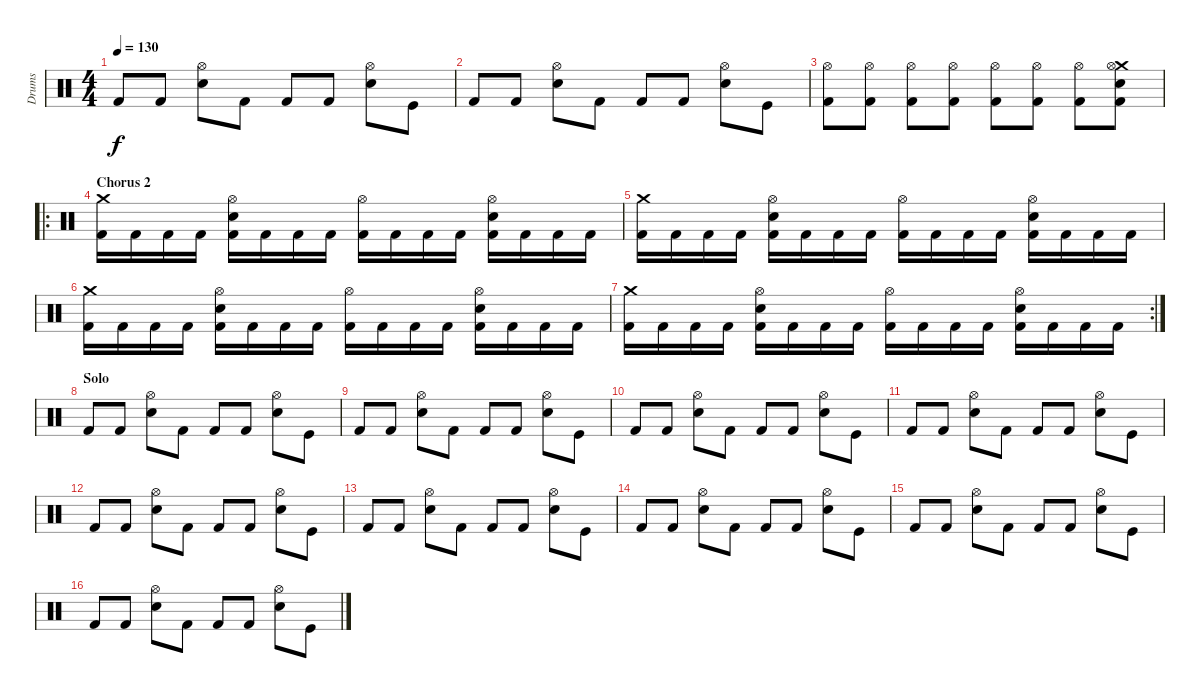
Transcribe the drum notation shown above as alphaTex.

\track ("Drums" "Drums") {instrument percussion}
\staff {score}
\articulation defaults
\ts (4 4)
\tempo 130
\clef neutral
\ks c "Kick (hit) 2".8{dy f} "Kick (hit) 2".8
("Electric Snare (hit)" "Hi-Hat (open)").8 "Kick (hit) 2".8 "Kick (hit) 2".8 "Kick (hit) 2".8 ("Electric Snare (hit)" "Hi-Hat (open)").8 "Kick (hit)".8 |
"Kick (hit) 2".8 "Kick (hit) 2".8 ("Electric Snare (hit)" "Hi-Hat (open)").8 "Kick (hit) 2".8 "Kick (hit) 2".8 "Kick (hit) 2".8 ("Electric Snare (hit)" "Hi-Hat (open)").8 "Kick (hit)".8{volume 0} |
("Kick (hit) 2" "Hi-Hat (open)").8{volume 16} ("Kick (hit) 2" "Hi-Hat (open)").8 ("Kick (hit) 2" "Hi-Hat (open)").8 ("Kick (hit) 2" "Hi-Hat (open)").8 ("Kick (hit) 2" "Hi-Hat (open)").8 ("Kick (hit) 2" "Hi-Hat (open)").8 ("Kick (hit) 2" "Hi-Hat (open)").8 ("Kick (hit) 2" "Crash medium (hit)" "Hi-Hat (open)" "Electric Snare (hit)").8 |
\ro
\section ("" "Chorus 2")
("Kick (hit) 2" "Crash medium (hit)").16{volume 10} "Kick (hit) 2".16 "Kick (hit) 2".16 "Kick (hit) 2".16 ("Kick (hit) 2" "Electric Snare (hit)" "Hi-Hat (open)").16 "Kick (hit) 2".16 "Kick (hit) 2".16 "Kick (hit) 2".16 ("Kick (hit) 2" "Hi-Hat (open)").16 "Kick (hit) 2".16 "Kick (hit) 2".16 "Kick (hit) 2".16 ("Kick (hit) 2" "Electric Snare (hit)" "Hi-Hat (open)").16 "Kick (hit) 2".16 "Kick (hit) 2".16 "Kick (hit) 2".16 |
("Kick (hit) 2" "Crash medium (hit)").16 "Kick (hit) 2".16 "Kick (hit) 2".16 "Kick (hit) 2".16 ("Kick (hit) 2" "Electric Snare (hit)" "Hi-Hat (open)").16 "Kick (hit) 2".16 "Kick (hit) 2".16 "Kick (hit) 2".16 ("Kick (hit) 2" "Hi-Hat (open)").16 "Kick (hit) 2".16 "Kick (hit) 2".16 "Kick (hit) 2".16 ("Kick (hit) 2" "Electric Snare (hit)" "Hi-Hat (open)").16 "Kick (hit) 2".16 "Kick (hit) 2".16 "Kick (hit) 2".16 |
("Kick (hit) 2" "Crash medium (hit)").16 "Kick (hit) 2".16 "Kick (hit) 2".16 "Kick (hit) 2".16 ("Kick (hit) 2" "Electric Snare (hit)" "Hi-Hat (open)").16 "Kick (hit) 2".16 "Kick (hit) 2".16 "Kick (hit) 2".16 ("Kick (hit) 2" "Hi-Hat (open)").16 "Kick (hit) 2".16 "Kick (hit) 2".16 "Kick (hit) 2".16 ("Kick (hit) 2" "Electric Snare (hit)" "Hi-Hat (open)").16 "Kick (hit) 2".16 "Kick (hit) 2".16 "Kick (hit) 2".16 |
\rc 2
("Kick (hit) 2" "Crash medium (hit)").16 "Kick (hit) 2".16 "Kick (hit) 2".16 "Kick (hit) 2".16 ("Kick (hit) 2" "Electric Snare (hit)" "Hi-Hat (open)").16 "Kick (hit) 2".16 "Kick (hit) 2".16 "Kick (hit) 2".16 ("Kick (hit) 2" "Hi-Hat (open)").16 "Kick (hit) 2".16 "Kick (hit) 2".16 "Kick (hit) 2".16 ("Kick (hit) 2" "Electric Snare (hit)" "Hi-Hat (open)").16 "Kick (hit) 2".16 "Kick (hit) 2".16 "Kick (hit) 2".16 |
\section ("" "Solo")
"Kick (hit) 2".8 "Kick (hit) 2".8 ("Electric Snare (hit)" "Hi-Hat (open)").8 "Kick (hit) 2".8 "Kick (hit) 2".8 "Kick (hit) 2".8 ("Electric Snare (hit)" "Hi-Hat (open)").8 "Kick (hit)".8 |
"Kick (hit) 2".8 "Kick (hit) 2".8 ("Electric Snare (hit)" "Hi-Hat (open)").8 "Kick (hit) 2".8 "Kick (hit) 2".8 "Kick (hit) 2".8 ("Electric Snare (hit)" "Hi-Hat (open)").8 "Kick (hit)".8 |
"Kick (hit) 2".8 "Kick (hit) 2".8 ("Electric Snare (hit)" "Hi-Hat (open)").8 "Kick (hit) 2".8 "Kick (hit) 2".8 "Kick (hit) 2".8 ("Electric Snare (hit)" "Hi-Hat (open)").8 "Kick (hit)".8 |
"Kick (hit) 2".8 "Kick (hit) 2".8 ("Electric Snare (hit)" "Hi-Hat (open)").8 "Kick (hit) 2".8 "Kick (hit) 2".8 "Kick (hit) 2".8 ("Electric Snare (hit)" "Hi-Hat (open)").8 "Kick (hit)".8 |
"Kick (hit) 2".8 "Kick (hit) 2".8 ("Electric Snare (hit)" "Hi-Hat (open)").8 "Kick (hit) 2".8 "Kick (hit) 2".8 "Kick (hit) 2".8 ("Electric Snare (hit)" "Hi-Hat (open)").8 "Kick (hit)".8 |
"Kick (hit) 2".8 "Kick (hit) 2".8 ("Electric Snare (hit)" "Hi-Hat (open)").8 "Kick (hit) 2".8 "Kick (hit) 2".8 "Kick (hit) 2".8 ("Electric Snare (hit)" "Hi-Hat (open)").8 "Kick (hit)".8 |
"Kick (hit) 2".8 "Kick (hit) 2".8 ("Electric Snare (hit)" "Hi-Hat (open)").8 "Kick (hit) 2".8 "Kick (hit) 2".8 "Kick (hit) 2".8 ("Electric Snare (hit)" "Hi-Hat (open)").8 "Kick (hit)".8 |
"Kick (hit) 2".8 "Kick (hit) 2".8 ("Electric Snare (hit)" "Hi-Hat (open)").8 "Kick (hit) 2".8 "Kick (hit) 2".8 "Kick (hit) 2".8 ("Electric Snare (hit)" "Hi-Hat (open)").8 "Kick (hit)".8 |
"Kick (hit) 2".8 "Kick (hit) 2".8 ("Electric Snare (hit)" "Hi-Hat (open)").8 "Kick (hit) 2".8 "Kick (hit) 2".8 "Kick (hit) 2".8 ("Electric Snare (hit)" "Hi-Hat (open)").8 "Kick (hit)".8
